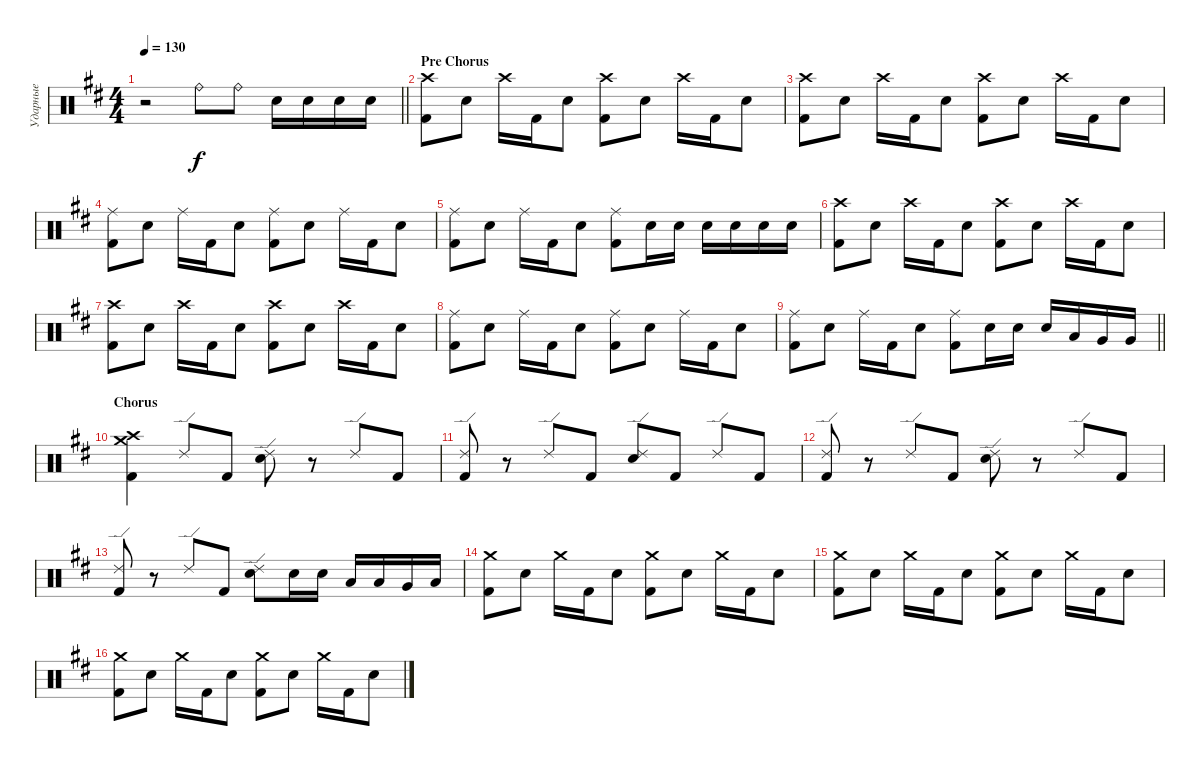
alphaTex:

\track ("Ударные" "Ударные") {instrument percussion}
\staff {score}
\articulation defaults
\ts (4 4)
\tempo 130
\clef neutral
\barLineRight lightlight
\ks d
r.2{dy mp} "Ride (bell)".8{dy f} "Ride (bell)".8 "Electric Snare (hit)".16 "Electric Snare (hit)".16 "Electric Snare (hit)".16 "Electric Snare (hit)".16 |
\section ("" "Pre Chorus")
("Crash high (hit)" "Kick (hit) 2").8 "Electric Snare (hit)".8 "Crash high (hit)".16 "Kick (hit) 2".16 "Electric Snare (hit)".8 ("Crash high (hit)" "Kick (hit) 2").8 "Electric Snare (hit)".8 "Crash high (hit)".16 "Kick (hit) 2".16 "Electric Snare (hit)".8 |
("Crash high (hit)" "Kick (hit) 2").8 "Electric Snare (hit)".8 "Crash high (hit)".16 "Kick (hit) 2".16 "Electric Snare (hit)".8 ("Crash high (hit)" "Kick (hit) 2").8 "Electric Snare (hit)".8 "Crash high (hit)".16 "Kick (hit) 2".16 "Electric Snare (hit)".8 |
("Ride (middle)" "Kick (hit) 2").8 "Electric Snare (hit)".8 "Ride (middle)".16 "Kick (hit) 2".16 "Electric Snare (hit)".8 ("Ride (middle)" "Kick (hit) 2").8 "Electric Snare (hit)".8 "Ride (middle)".16 "Kick (hit) 2".16 "Electric Snare (hit)".8 |
("Ride (middle)" "Kick (hit) 2").8 "Electric Snare (hit)".8 "Ride (middle)".16 "Kick (hit) 2".16 "Electric Snare (hit)".8 ("Ride (middle)" "Kick (hit) 2").8 "Electric Snare (hit)".16 "Electric Snare (hit)".16 "Electric Snare (hit)".16 "Electric Snare (hit)".16 "Electric Snare (hit)".16 "Electric Snare (hit)".16 |
("Crash high (hit)" "Kick (hit) 2").8 "Electric Snare (hit)".8 "Crash high (hit)".16 "Kick (hit) 2".16 "Electric Snare (hit)".8 ("Crash high (hit)" "Kick (hit) 2").8 "Electric Snare (hit)".8 "Crash high (hit)".16 "Kick (hit) 2".16 "Electric Snare (hit)".8 |
("Crash high (hit)" "Kick (hit) 2").8 "Electric Snare (hit)".8 "Crash high (hit)".16 "Kick (hit) 2".16 "Electric Snare (hit)".8 ("Crash high (hit)" "Kick (hit) 2").8 "Electric Snare (hit)".8 "Crash high (hit)".16 "Kick (hit) 2".16 "Electric Snare (hit)".8 |
("Ride (middle)" "Kick (hit) 2").8 "Electric Snare (hit)".8 "Ride (middle)".16 "Kick (hit) 2".16 "Electric Snare (hit)".8 ("Ride (middle)" "Kick (hit) 2").8 "Electric Snare (hit)".8 "Ride (middle)".16 "Kick (hit) 2".16 "Electric Snare (hit)".8 |
\barLineRight lightlight
("Ride (middle)" "Kick (hit) 2").8 "Electric Snare (hit)".8 "Ride (middle)".16 "Kick (hit) 2".16 "Electric Snare (hit)".8 ("Ride (middle)" "Kick (hit) 2").8 "Electric Snare (hit)".16 "Electric Snare (hit)".16 "Electric Snare (hit)".16 "Low Tom (hit)".16 "Very Low Tom (hit)".16 "Very Low Tom (hit)".16 |
\section ("" "Chorus")
("Crash medium (hit)" "Crash high (hit)" "Kick (hit) 2").4 "Ride (edge) 2".8 "Kick (hit) 2".8 ("Ride (edge) 2" "Electric Snare (hit)").8 r.8 "Ride (edge) 2".8 "Kick (hit) 2".8 |
("Ride (edge) 2" "Kick (hit) 2").8 r.8 "Ride (edge) 2".8 "Kick (hit) 2".8 ("Ride (edge) 2" "Electric Snare (hit)").8 "Kick (hit) 2".8 "Ride (edge) 2".8 "Kick (hit) 2".8 |
("Ride (edge) 2" "Kick (hit) 2").8 r.8 "Ride (edge) 2".8 "Kick (hit) 2".8 ("Ride (edge) 2" "Electric Snare (hit)").8 r.8 "Ride (edge) 2".8 "Kick (hit) 2".8 |
("Ride (edge) 2" "Kick (hit) 2").8 r.8 "Ride (edge) 2".8 "Kick (hit) 2".8 ("Ride (edge) 2" "Electric Snare (hit)").8 "Electric Snare (hit)".16 "Electric Snare (hit)".16 "Low Tom (hit)".16 "Low Tom (hit)".16 "Very Low Tom (hit)".16 "Low Floor Tom (hit)".16 |
("Crash medium (hit)" "Kick (hit) 2").8 "Electric Snare (hit)".8 "Crash medium (hit)".16 "Kick (hit) 2".16 "Electric Snare (hit)".8 ("Crash medium (hit)" "Kick (hit) 2").8 "Electric Snare (hit)".8 "Crash medium (hit)".16 "Kick (hit) 2".16 "Electric Snare (hit)".8 |
("Crash medium (hit)" "Kick (hit) 2").8 "Electric Snare (hit)".8 "Crash medium (hit)".16 "Kick (hit) 2".16 "Electric Snare (hit)".8 ("Crash medium (hit)" "Kick (hit) 2").8 "Electric Snare (hit)".8 "Crash medium (hit)".16 "Kick (hit) 2".16 "Electric Snare (hit)".8 |
("Crash medium (hit)" "Kick (hit) 2").8 "Electric Snare (hit)".8 "Crash medium (hit)".16 "Kick (hit) 2".16 "Electric Snare (hit)".8 ("Crash medium (hit)" "Kick (hit) 2").8 "Electric Snare (hit)".8 "Crash medium (hit)".16 "Kick (hit) 2".16 "Electric Snare (hit)".8
